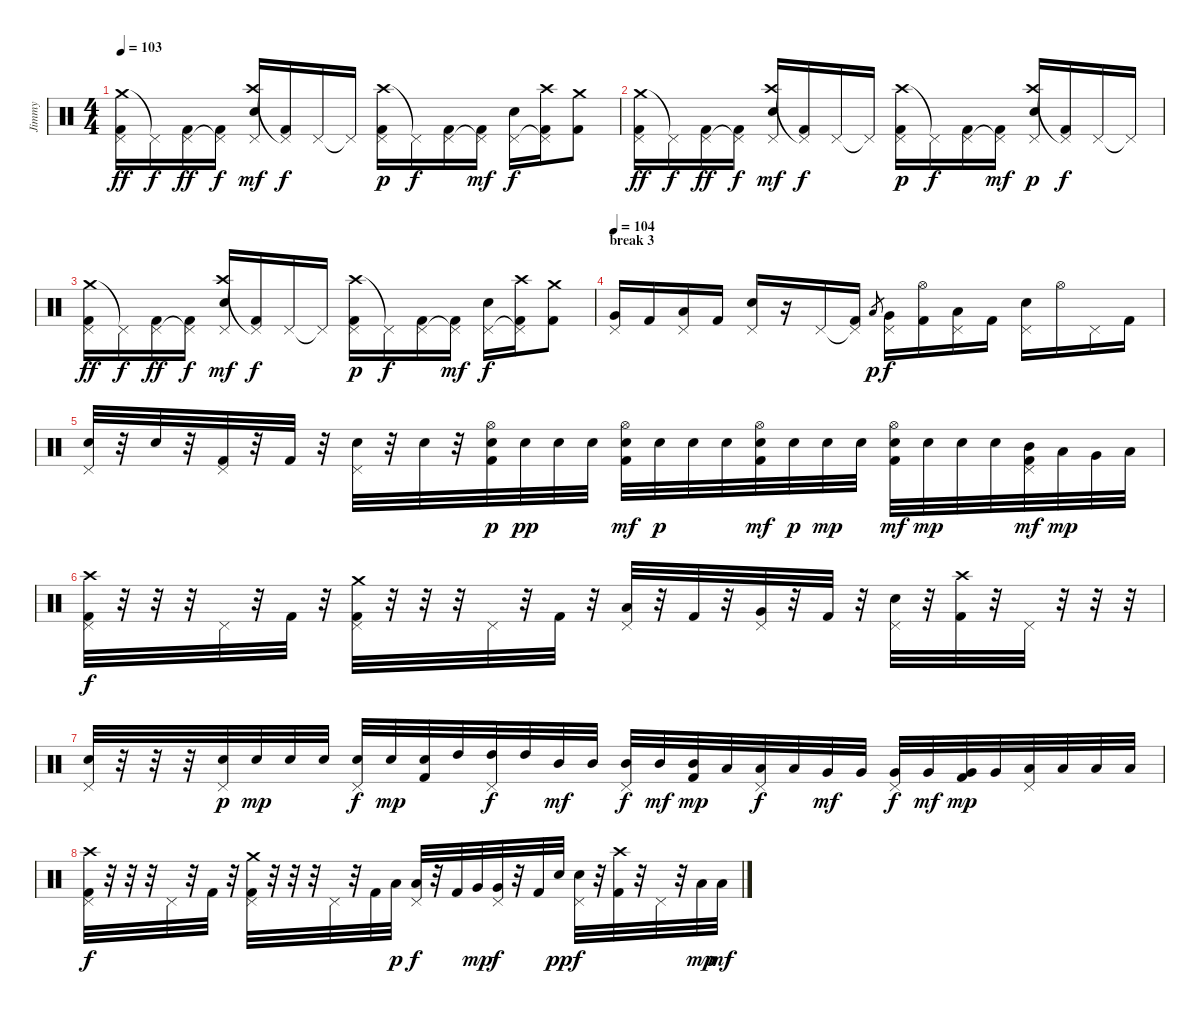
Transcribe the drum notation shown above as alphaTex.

\track ("Jimmy" "Jimmy") {instrument percussion}
\staff {score}
\articulation defaults
\ts (4 4)
\tempo 103
\clef neutral
\ks c
("Crash medium (hit)" "Pedal Hi-Hat (hit)" "Kick (hit) 2").16{dy ff} "Pedal Hi-Hat (hit)"{t}.16{dy f} ("Pedal Hi-Hat (hit)" "Kick (hit) 2").16{dy ff} ("Pedal Hi-Hat (hit)"{t} "Kick (hit) 2").16{dy f} ("Crash high (hit)" "Pedal Hi-Hat (hit)" "Electric Snare (hit)").16{dy mf} ("Pedal Hi-Hat (hit)"{t} "Kick (hit) 2").16{dy f} "Pedal Hi-Hat (hit)".16 "Pedal Hi-Hat (hit)"{t}.16 ("Crash high (hit)" "Pedal Hi-Hat (hit)" "Kick (hit) 2").16{dy p} "Pedal Hi-Hat (hit)"{t}.16{dy f} ("Pedal Hi-Hat (hit)" "Kick (hit) 2").16 ("Pedal Hi-Hat (hit)"{t} "Kick (hit) 2").16{dy mf} ("Pedal Hi-Hat (hit)" "Electric Snare (hit)").16{dy f} ("Pedal Hi-Hat (hit)"{t} "Crash high (hit)" "Kick (hit) 2").16 ("Crash medium (hit)" "Kick (hit) 2").8 |
("Crash medium (hit)" "Pedal Hi-Hat (hit)" "Kick (hit) 2").16{dy ff} "Pedal Hi-Hat (hit)"{t}.16{dy f} ("Pedal Hi-Hat (hit)" "Kick (hit) 2").16{dy ff} ("Pedal Hi-Hat (hit)"{t} "Kick (hit) 2").16{dy f} ("Crash high (hit)" "Pedal Hi-Hat (hit)" "Electric Snare (hit)").16{dy mf} ("Pedal Hi-Hat (hit)"{t} "Kick (hit) 2").16{dy f} "Pedal Hi-Hat (hit)".16 "Pedal Hi-Hat (hit)"{t}.16 ("Crash high (hit)" "Pedal Hi-Hat (hit)" "Kick (hit) 2").16{dy p} "Pedal Hi-Hat (hit)"{t}.16{dy f} ("Pedal Hi-Hat (hit)" "Kick (hit) 2").16 ("Pedal Hi-Hat (hit)"{t} "Kick (hit) 2").16{dy mf} ("Crash high (hit)" "Pedal Hi-Hat (hit)" "Electric Snare (hit)").16{dy p} ("Pedal Hi-Hat (hit)"{t} "Kick (hit) 2").16{dy f} "Pedal Hi-Hat (hit)".16 "Pedal Hi-Hat (hit)"{t}.16 |
("Crash medium (hit)" "Pedal Hi-Hat (hit)" "Kick (hit) 2").16{dy ff} "Pedal Hi-Hat (hit)"{t}.16{dy f} ("Pedal Hi-Hat (hit)" "Kick (hit) 2").16{dy ff} ("Pedal Hi-Hat (hit)"{t} "Kick (hit) 2").16{dy f} ("Crash high (hit)" "Pedal Hi-Hat (hit)" "Electric Snare (hit)").16{dy mf} ("Pedal Hi-Hat (hit)"{t} "Kick (hit) 2").16{dy f} "Pedal Hi-Hat (hit)".16 "Pedal Hi-Hat (hit)"{t}.16 ("Crash high (hit)" "Pedal Hi-Hat (hit)" "Kick (hit) 2").16{dy p} "Pedal Hi-Hat (hit)"{t}.16{dy f} ("Pedal Hi-Hat (hit)" "Kick (hit) 2").16 ("Pedal Hi-Hat (hit)"{t} "Kick (hit) 2").16{dy mf} ("Pedal Hi-Hat (hit)" "Electric Snare (hit)").16{dy f} ("Pedal Hi-Hat (hit)"{t} "Crash high (hit)" "Kick (hit) 2").16 ("Crash medium (hit)" "Kick (hit) 2").8 |
\section ("" "break 3")
\tempo 104
("Pedal Hi-Hat (hit)" "Very Low Tom (hit)").16 "Kick (hit) 2".16 ("Pedal Hi-Hat (hit)" "Low Floor Tom (hit)").16 "Kick (hit) 2".16 ("Pedal Hi-Hat (hit)" "Electric Snare (hit)").16 r.16 "Pedal Hi-Hat (hit)".16 ("Pedal Hi-Hat (hit)"{t} "Kick (hit) 2").16 "Low Tom (hit)".8{gr dy p} ("Pedal Hi-Hat (hit)" "Very Low Tom (hit)").16{dy f} ("Hi-Hat (open)" "Kick (hit) 2").16 ("Pedal Hi-Hat (hit)" "Low Floor Tom (hit)").16 "Kick (hit) 2".16 ("Pedal Hi-Hat (hit)" "Electric Snare (hit)").16 "Hi-Hat (open)".16 "Pedal Hi-Hat (hit)".16 "Kick (hit) 2".16 |
("Pedal Hi-Hat (hit)" "Electric Snare (hit)").32 r.32 "Electric Snare (hit)".32 r.32 ("Pedal Hi-Hat (hit)" "Kick (hit) 2").32 r.32 "Kick (hit) 2".32 r.32 ("Pedal Hi-Hat (hit)" "Electric Snare (hit)").32 r.32 "Electric Snare (hit)".32 r.32 ("Hi-Hat (open)" "Electric Snare (hit)" "Kick (hit) 2").32{dy p} "Electric Snare (hit)".32{dy pp} "Electric Snare (hit)".32 "Electric Snare (hit)".32 ("Hi-Hat (open)" "Electric Snare (hit)" "Kick (hit) 2").32{dy mf} "Electric Snare (hit)".32{dy p} "Electric Snare (hit)".32 "Electric Snare (hit)".32 ("Hi-Hat (open)" "Electric Snare (hit)" "Kick (hit) 2").32{dy mf} "Electric Snare (hit)".32{dy p} "Electric Snare (hit)".32{dy mp} "Electric Snare (hit)".32 ("Hi-Hat (open)" "Electric Snare (hit)" "Kick (hit) 2").32{dy mf} "Electric Snare (hit)".32{dy mp} "Electric Snare (hit)".32 "Electric Snare (hit)".32 ("Pedal Hi-Hat (hit)" "Mid Tom (hit)" "Kick (hit) 2").32{dy mf} "Low Tom (hit)".32{dy mp} "Very Low Tom (hit)".32 "Low Floor Tom (hit)".32 |
("Crash high (hit)" "Pedal Hi-Hat (hit)" "Kick (hit) 2").32{dy f} r.32 r.32 r.32 "Pedal Hi-Hat (hit)".32 r.32 "Kick (hit) 2".32 r.32 ("Crash medium (hit)" "Pedal Hi-Hat (hit)" "Kick (hit) 2").32 r.32 r.32 r.32 "Pedal Hi-Hat (hit)".32 r.32 "Kick (hit) 2".32 r.32 ("Pedal Hi-Hat (hit)" "Low Tom (hit)").32 r.32 "Kick (hit) 2".32 r.32 ("Pedal Hi-Hat (hit)" "Very Low Tom (hit)").32 r.32 "Kick (hit) 2".32 r.32 ("Pedal Hi-Hat (hit)" "Electric Snare (hit)").32 r.32 ("Crash high (hit)" "Kick (hit) 2").32 r.32 "Pedal Hi-Hat (hit)".32 r.32 r.32 r.32 |
("Pedal Hi-Hat (hit)" "Electric Snare (hit)").32 r.32 r.32 r.32 ("Pedal Hi-Hat (hit)" "Electric Snare (hit)").32{dy p} "Electric Snare (hit)".32{dy mp} "Electric Snare (hit)".32 "Electric Snare (hit)".32 ("Pedal Hi-Hat (hit)" "Electric Snare (hit)").32{dy f} "Electric Snare (hit)".32{dy mp} ("Electric Snare (hit)" "Kick (hit) 2").32 "High Tom (hit)".32 ("Pedal Hi-Hat (hit)" "High Tom (hit)").32{dy f} "High Tom (hit)".32 "Mid Tom (hit)".32{dy mf} "Mid Tom (hit)".32 ("Pedal Hi-Hat (hit)" "Mid Tom (hit)").32{dy f} "Mid Tom (hit)".32{dy mf} ("Mid Tom (hit)" "Kick (hit) 2").32{dy mp} "Low Tom (hit)".32 ("Pedal Hi-Hat (hit)" "Low Tom (hit)").32{dy f} "Low Tom (hit)".32 "Very Low Tom (hit)".32{dy mf} "Very Low Tom (hit)".32 ("Pedal Hi-Hat (hit)" "Very Low Tom (hit)").32{dy f} "Very Low Tom (hit)".32{dy mf} ("Very Low Tom (hit)" "Kick (hit) 2").32{dy mp} "Very Low Tom (hit)".32 ("Pedal Hi-Hat (hit)" "Low Floor Tom (hit)").32 "Low Floor Tom (hit)".32 "Low Floor Tom (hit)".32 "Low Floor Tom (hit)".32 |
("Crash high (hit)" "Pedal Hi-Hat (hit)" "Kick (hit) 2").32{dy f} r.32 r.32 r.32 "Pedal Hi-Hat (hit)".32 r.32 "Kick (hit) 2".32 r.32 ("Crash medium (hit)" "Pedal Hi-Hat (hit)" "Kick (hit) 2").32 r.32 r.32 r.32 "Pedal Hi-Hat (hit)".32 r.32 "Kick (hit) 2".32 "Low Tom (hit)".32{dy p} ("Pedal Hi-Hat (hit)" "Low Tom (hit)").32{dy f} r.32 "Kick (hit) 2".32 "Very Low Tom (hit)".32{dy mp} ("Pedal Hi-Hat (hit)" "Very Low Tom (hit)").32{dy f} r.32 "Kick (hit) 2".32 "Electric Snare (hit)".32{dy pp} ("Pedal Hi-Hat (hit)" "Electric Snare (hit)").32{dy f} r.32 ("Crash high (hit)" "Kick (hit) 2").32 r.32 "Pedal Hi-Hat (hit)".32 r.32 "Low Tom (hit)".32{dy mp} "Low Tom (hit)".32{dy mf}
